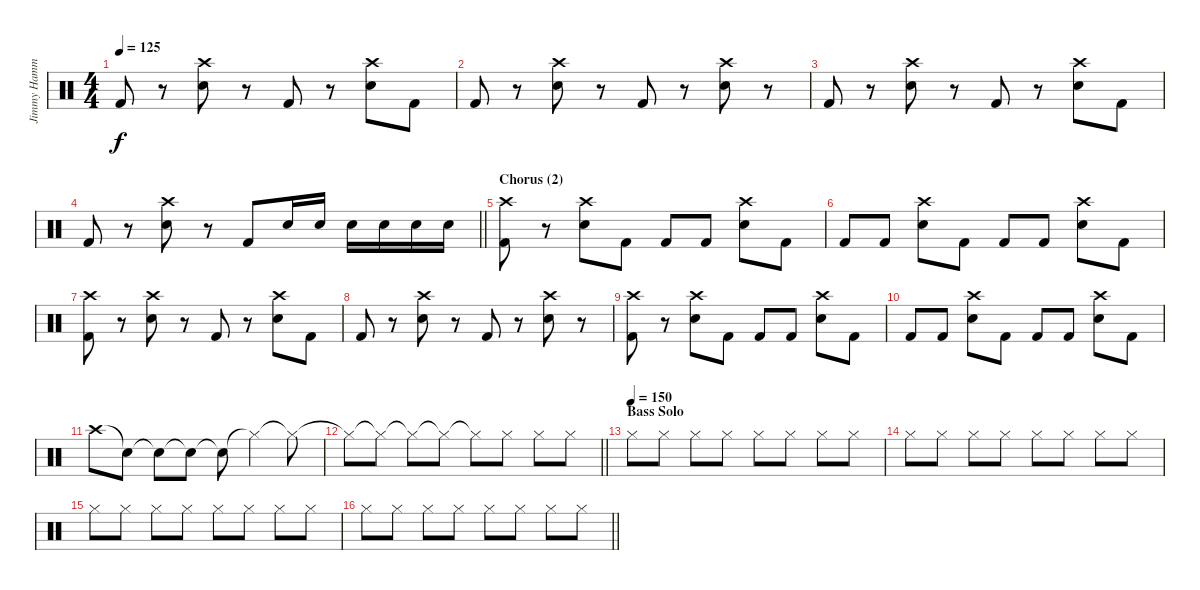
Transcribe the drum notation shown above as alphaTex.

\track ("Jimmy Hammer" "Jimmy Hamm") {instrument percussion}
\staff {score}
\articulation defaults
\ts (4 4)
\tempo 125
\clef neutral
\ks c "Kick (hit) 2".8{dy f}
r.8 ("Electric Snare (hit)" "Crash high (hit)").8 r.8 "Kick (hit) 2".8 r.8 ("Electric Snare (hit)" "Crash high (hit)").8 "Kick (hit) 2".8 |
"Kick (hit) 2".8 r.8 ("Electric Snare (hit)" "Crash high (hit)").8 r.8 "Kick (hit) 2".8 r.8 ("Electric Snare (hit)" "Crash high (hit)").8 r.8 |
"Kick (hit) 2".8 r.8 ("Electric Snare (hit)" "Crash high (hit)").8 r.8 "Kick (hit) 2".8 r.8 ("Electric Snare (hit)" "Crash high (hit)").8 "Kick (hit) 2".8 |
\barLineRight lightlight "Kick (hit) 2".8
r.8 ("Electric Snare (hit)" "Crash high (hit)").8 r.8 "Kick (hit) 2".8 "Electric Snare (hit)".16 "Electric Snare (hit)".16 "Electric Snare (hit)".16 "Electric Snare (hit)".16 "Electric Snare (hit)".16 "Electric Snare (hit)".16 |
\section ("" "Chorus (2)")
("Crash high (hit)" "Kick (hit) 2").8 r.8 ("Electric Snare (hit)" "Crash high (hit)").8 "Kick (hit) 2".8 "Kick (hit) 2".8 "Kick (hit) 2".8 ("Electric Snare (hit)" "Crash high (hit)").8 "Kick (hit) 2".8 |
"Kick (hit) 2".8 "Kick (hit) 2".8 ("Electric Snare (hit)" "Crash high (hit)").8 "Kick (hit) 2".8 "Kick (hit) 2".8 "Kick (hit) 2".8 ("Electric Snare (hit)" "Crash high (hit)").8 "Kick (hit) 2".8 |
("Crash high (hit)" "Kick (hit) 2").8 r.8 ("Electric Snare (hit)" "Crash high (hit)").8 r.8 "Kick (hit) 2".8 r.8 ("Electric Snare (hit)" "Crash high (hit)").8 "Kick (hit) 2".8 |
"Kick (hit) 2".8 r.8 ("Electric Snare (hit)" "Crash high (hit)").8 r.8 "Kick (hit) 2".8 r.8 ("Electric Snare (hit)" "Crash high (hit)").8 r.8 |
("Crash high (hit)" "Kick (hit) 2").8 r.8 ("Electric Snare (hit)" "Crash high (hit)").8 "Kick (hit) 2".8 "Kick (hit) 2".8 "Kick (hit) 2".8 ("Electric Snare (hit)" "Crash high (hit)").8 "Kick (hit) 2".8 |
"Kick (hit) 2".8 "Kick (hit) 2".8 ("Electric Snare (hit)" "Crash high (hit)").8 "Kick (hit) 2".8 "Kick (hit) 2".8 "Kick (hit) 2".8 ("Electric Snare (hit)" "Crash high (hit)").8 "Kick (hit) 2".8 |
"Crash high (hit)".8 "Snare (hit)"{t}.8 "Snare (hit)"{t}.8 "Snare (hit)"{t}.8 "Snare (hit)"{t}.8 "Hi-Hat (closed)"{t}.4 "Hi-Hat (closed)"{t}.8 |
\barLineRight lightlight "Hi-Hat (closed)"{t}.8 "Hi-Hat (closed)"{t}.8 "Hi-Hat (closed)"{t}.8 "Hi-Hat (closed)"{t}.8 "Hi-Hat (closed)"{t}.8 "Hi-Hat (closed)".8 "Hi-Hat (closed)".8 "Hi-Hat (closed)".8
|
\section ("" "Bass Solo")
\tempo (150)
"Hi-Hat (closed)".8 "Hi-Hat (closed)".8 "Hi-Hat (closed)".8 "Hi-Hat (closed)".8 "Hi-Hat (closed)".8 "Hi-Hat (closed)".8 "Hi-Hat (closed)".8 "Hi-Hat (closed)".8 |
"Hi-Hat (closed)".8 "Hi-Hat (closed)".8 "Hi-Hat (closed)".8 "Hi-Hat (closed)".8 "Hi-Hat (closed)".8 "Hi-Hat (closed)".8 "Hi-Hat (closed)".8 "Hi-Hat (closed)".8 |
"Hi-Hat (closed)".8 "Hi-Hat (closed)".8 "Hi-Hat (closed)".8 "Hi-Hat (closed)".8 "Hi-Hat (closed)".8 "Hi-Hat (closed)".8 "Hi-Hat (closed)".8 "Hi-Hat (closed)".8 |
\barLineRight lightlight "Hi-Hat (closed)".8 "Hi-Hat (closed)".8 "Hi-Hat (closed)".8 "Hi-Hat (closed)".8 "Hi-Hat (closed)".8 "Hi-Hat (closed)".8 "Hi-Hat (closed)".8 "Hi-Hat (closed)".8
